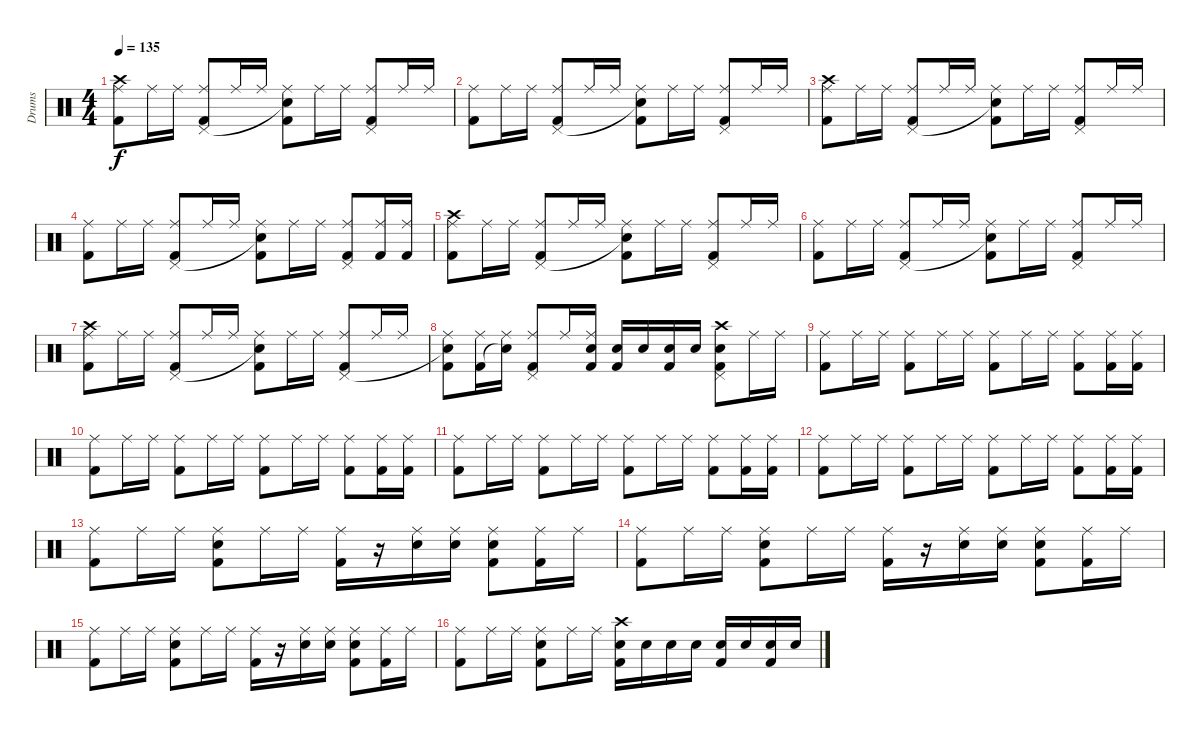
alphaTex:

\track ("Drums" "Drums") {instrument percussion}
\staff {score}
\articulation defaults
\ts (4 4)
\tempo 135
\clef neutral
\ks c
("Ride (middle)" "Crash high (hit)" "Kick (hit) 2").8{dy f} "Ride (middle)".16 "Ride (middle)".16 ("Ride (middle)" "Pedal Hi-Hat (hit)" "Kick (hit) 2").8 "Ride (middle)".16 "Ride (middle)".16 ("Ride (middle)" "Snare (hit)"{t} "Kick (hit) 2").8 "Ride (middle)".16 "Ride (middle)".16 ("Ride (middle)" "Pedal Hi-Hat (hit)" "Kick (hit) 2").8 "Ride (middle)".16 "Ride (middle)".16 |
("Ride (middle)" "Kick (hit) 2").8 "Ride (middle)".16 "Ride (middle)".16 ("Ride (middle)" "Pedal Hi-Hat (hit)" "Kick (hit) 2").8 "Ride (middle)".16 "Ride (middle)".16 ("Ride (middle)" "Snare (hit)"{t} "Kick (hit) 2").8 "Ride (middle)".16 "Ride (middle)".16 ("Ride (middle)" "Pedal Hi-Hat (hit)" "Kick (hit) 2").8 "Ride (middle)".16 "Ride (middle)".16 |
("Ride (middle)" "Crash high (hit)" "Kick (hit) 2").8 "Ride (middle)".16 "Ride (middle)".16 ("Ride (middle)" "Pedal Hi-Hat (hit)" "Kick (hit) 2").8 "Ride (middle)".16 "Ride (middle)".16 ("Ride (middle)" "Snare (hit)"{t} "Kick (hit) 2").8 "Ride (middle)".16 "Ride (middle)".16 ("Ride (middle)" "Pedal Hi-Hat (hit)" "Kick (hit) 2").8 "Ride (middle)".16 "Ride (middle)".16 |
("Ride (middle)" "Kick (hit) 2").8 "Ride (middle)".16 "Ride (middle)".16 ("Ride (middle)" "Pedal Hi-Hat (hit)" "Kick (hit) 2").8 "Ride (middle)".16 "Ride (middle)".16 ("Ride (middle)" "Snare (hit)"{t} "Kick (hit) 2").8 "Ride (middle)".16 "Ride (middle)".16 ("Ride (middle)" "Pedal Hi-Hat (hit)" "Kick (hit) 2").8 ("Ride (middle)" "Kick (hit) 2").16 ("Ride (middle)" "Kick (hit) 2").16 |
("Ride (middle)" "Crash high (hit)" "Kick (hit) 2").8 "Ride (middle)".16 "Ride (middle)".16 ("Ride (middle)" "Pedal Hi-Hat (hit)" "Kick (hit) 2").8 "Ride (middle)".16 "Ride (middle)".16 ("Ride (middle)" "Snare (hit)"{t} "Kick (hit) 2").8 "Ride (middle)".16 "Ride (middle)".16 ("Ride (middle)" "Pedal Hi-Hat (hit)" "Kick (hit) 2").8 "Ride (middle)".16 "Ride (middle)".16 |
("Ride (middle)" "Kick (hit) 2").8 "Ride (middle)".16 "Ride (middle)".16 ("Ride (middle)" "Pedal Hi-Hat (hit)" "Kick (hit) 2").8 "Ride (middle)".16 "Ride (middle)".16 ("Ride (middle)" "Snare (hit)"{t} "Kick (hit) 2").8 "Ride (middle)".16 "Ride (middle)".16 ("Ride (middle)" "Pedal Hi-Hat (hit)" "Kick (hit) 2").8 "Ride (middle)".16 "Ride (middle)".16 |
("Ride (middle)" "Crash high (hit)" "Kick (hit) 2").8 "Ride (middle)".16 "Ride (middle)".16 ("Ride (middle)" "Pedal Hi-Hat (hit)" "Kick (hit) 2").8 "Ride (middle)".16 "Ride (middle)".16 ("Ride (middle)" "Snare (hit)"{t} "Kick (hit) 2").8 "Ride (middle)".16 "Ride (middle)".16 ("Ride (middle)" "Pedal Hi-Hat (hit)" "Kick (hit) 2").8 "Ride (middle)".16 "Ride (middle)".16 |
("Ride (middle)" "Snare (hit)"{t} "Kick (hit) 2").8 ("Ride (middle)" "Kick (hit) 2").16 ("Ride (middle)" "Snare (hit)"{t}).16 ("Ride (middle)" "Pedal Hi-Hat (hit)" "Kick (hit) 2").8 "Ride (middle)".16 ("Ride (middle)" "Snare (hit) 2" "Kick (hit) 2").16 ("Snare (hit) 2" "Kick (hit) 2").16 "Snare (hit) 2".16 ("Snare (hit) 2" "Kick (hit) 2").16 "Snare (hit) 2".16 ("Crash high (hit)" "Snare (hit) 2" "Pedal Hi-Hat (hit)" "Kick (hit) 2").8 "Ride (middle)".16 "Ride (middle)".16 |
("Ride (middle)" "Kick (hit) 2").8 "Ride (middle)".16 "Ride (middle)".16 ("Ride (middle)" "Kick (hit) 2").8 "Ride (middle)".16 "Ride (middle)".16 ("Ride (middle)" "Kick (hit) 2").8 "Ride (middle)".16 "Ride (middle)".16 ("Ride (middle)" "Kick (hit) 2").8 ("Ride (middle)" "Kick (hit) 2").16 ("Ride (middle)" "Kick (hit) 2").16 |
("Ride (middle)" "Kick (hit) 2").8 "Ride (middle)".16 "Ride (middle)".16 ("Ride (middle)" "Kick (hit) 2").8 "Ride (middle)".16 "Ride (middle)".16 ("Ride (middle)" "Kick (hit) 2").8 "Ride (middle)".16 "Ride (middle)".16 ("Ride (middle)" "Kick (hit) 2").8 ("Ride (middle)" "Kick (hit) 2").16 ("Ride (middle)" "Kick (hit) 2").16 |
("Ride (middle)" "Kick (hit) 2").8 "Ride (middle)".16 "Ride (middle)".16 ("Ride (middle)" "Kick (hit) 2").8 "Ride (middle)".16 "Ride (middle)".16 ("Ride (middle)" "Kick (hit) 2").8 "Ride (middle)".16 "Ride (middle)".16 ("Ride (middle)" "Kick (hit) 2").8 ("Ride (middle)" "Kick (hit) 2").16 ("Ride (middle)" "Kick (hit) 2").16 |
("Ride (middle)" "Kick (hit) 2").8 "Ride (middle)".16 "Ride (middle)".16 ("Ride (middle)" "Kick (hit) 2").8 "Ride (middle)".16 "Ride (middle)".16 ("Ride (middle)" "Kick (hit) 2").8 "Ride (middle)".16 "Ride (middle)".16 ("Ride (middle)" "Kick (hit) 2").8 ("Ride (middle)" "Kick (hit) 2").16 ("Ride (middle)" "Kick (hit) 2").16 |
("Ride (middle)" "Kick (hit) 2").8 "Ride (middle)".16 "Ride (middle)".16 ("Ride (middle)" "Electric Snare (hit)" "Kick (hit) 2").8 "Ride (middle)".16 "Ride (middle)".16 ("Ride (middle)" "Kick (hit) 2").16 r.16 ("Ride (middle)" "Electric Snare (hit)").16 ("Ride (middle)" "Electric Snare (hit)").16 ("Ride (middle)" "Electric Snare (hit)" "Kick (hit) 2").8 ("Ride (middle)" "Kick (hit) 2").16 "Ride (middle)".16 |
("Ride (middle)" "Kick (hit) 2").8 "Ride (middle)".16 "Ride (middle)".16 ("Ride (middle)" "Electric Snare (hit)" "Kick (hit) 2").8 "Ride (middle)".16 "Ride (middle)".16 ("Ride (middle)" "Kick (hit) 2").16 r.16 ("Ride (middle)" "Electric Snare (hit)").16 ("Ride (middle)" "Electric Snare (hit)").16 ("Ride (middle)" "Electric Snare (hit)" "Kick (hit) 2").8 ("Ride (middle)" "Kick (hit) 2").16 "Ride (middle)".16 |
("Ride (middle)" "Kick (hit) 2").8 "Ride (middle)".16 "Ride (middle)".16 ("Ride (middle)" "Electric Snare (hit)" "Kick (hit) 2").8 "Ride (middle)".16 "Ride (middle)".16 ("Ride (middle)" "Kick (hit) 2").16 r.16 ("Ride (middle)" "Electric Snare (hit)").16 ("Ride (middle)" "Electric Snare (hit)").16 ("Ride (middle)" "Electric Snare (hit)" "Kick (hit) 2").8 ("Ride (middle)" "Kick (hit) 2").16 "Ride (middle)".16 |
("Ride (middle)" "Kick (hit) 2").8 "Ride (middle)".16 "Ride (middle)".16 ("Ride (middle)" "Electric Snare (hit)" "Kick (hit) 2").8 "Ride (middle)".16 "Ride (middle)".16 ("Crash high (hit)" "Electric Snare (hit)" "Kick (hit) 2").16 "Electric Snare (hit)".16 "Electric Snare (hit)".16 "Electric Snare (hit)".16 ("Electric Snare (hit)" "Kick (hit) 2").16 "Electric Snare (hit)".16 ("Electric Snare (hit)" "Kick (hit) 2").16 "Electric Snare (hit)".16
